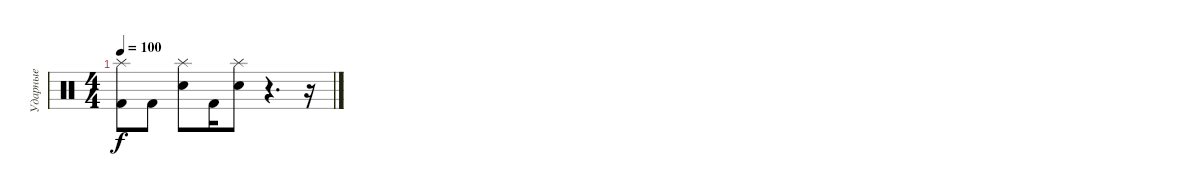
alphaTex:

\track ("Ударные" "Ударные") {instrument percussion}
\staff {score}
\articulation defaults
\ts (4 4)
\tempo 100
\clef neutral
\ks c
("Kick (hit) 2" "Splash (hit)").8{dy f} "Kick (hit) 2".8 ("Snare (hit) 2" "Splash (hit)").8 "Kick (hit) 2".16 ("Splash (hit)" "Snare (hit) 2").8 r.4{d} r.16
